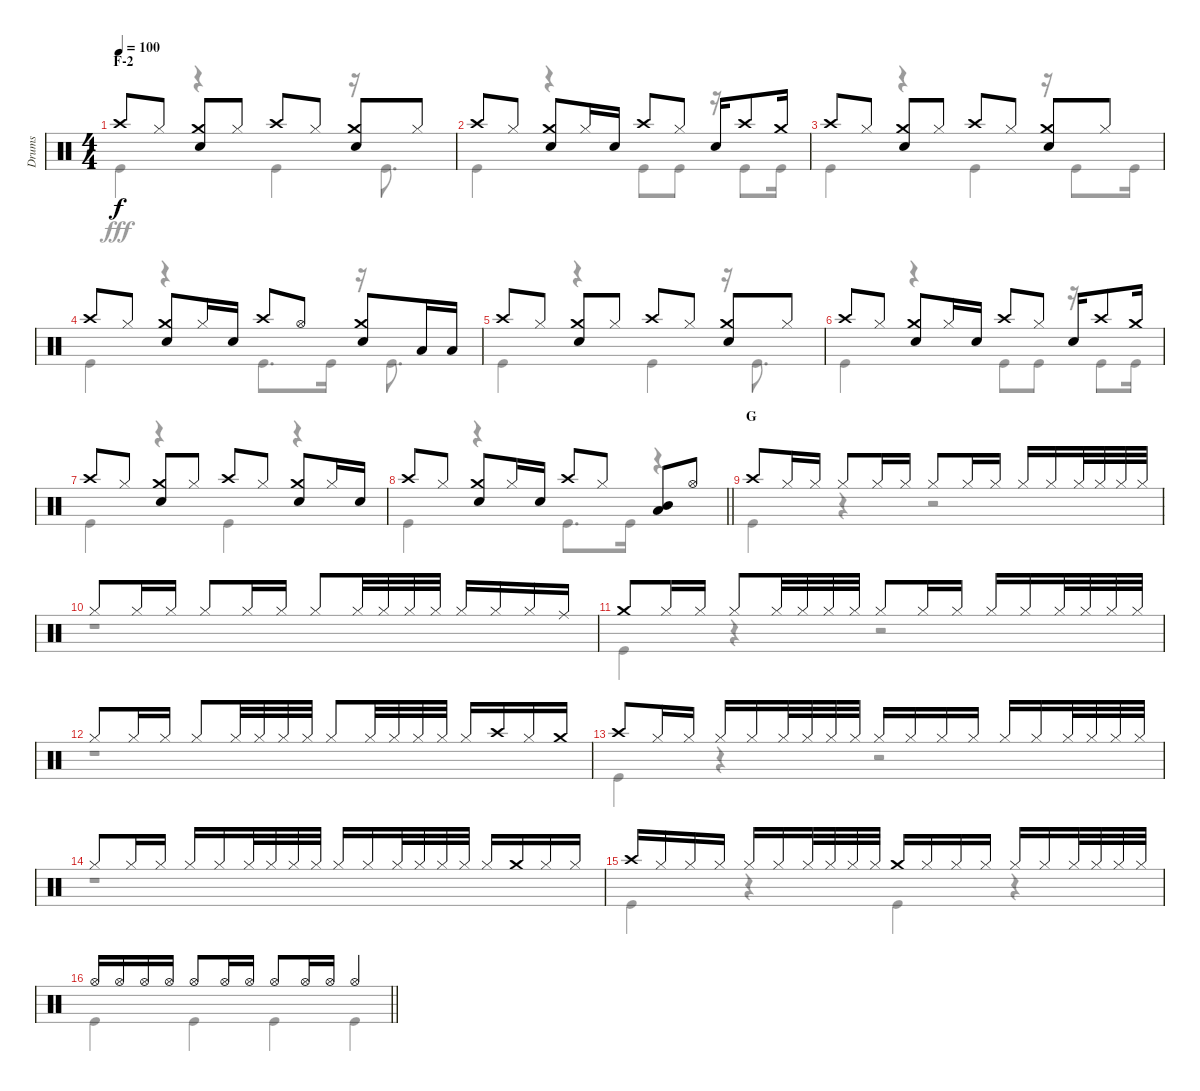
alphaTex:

\track ("Drums" "Drums") {instrument percussion}
\staff {score}
\articulation defaults
\voice
\ts (4 4)
\section ("" "F-2")
\tempo 100
\clef neutral
\ks c "Crash high (hit)".8{dy f} "Hi-Hat (closed)".8
("Crash medium (hit)" "Snare (hit) 2").8 "Hi-Hat (closed)".8 "Crash high (hit)".8 "Hi-Hat (closed)".8 ("Crash medium (hit)" "Snare (hit) 2").8 "Hi-Hat (closed)".8 |
"Crash high (hit)".8 "Hi-Hat (closed)".8 ("Crash medium (hit)" "Snare (hit) 2").8 "Hi-Hat (closed)".16 "Snare (hit) 2".16 "Crash high (hit)".8 "Hi-Hat (closed)".8 "Snare (hit) 2".16 "Crash high (hit)".8 "Crash medium (hit)".16 |
"Crash high (hit)".8 "Hi-Hat (closed)".8 ("Crash medium (hit)" "Snare (hit) 2").8 "Hi-Hat (closed)".8 "Crash high (hit)".8 "Hi-Hat (closed)".8 ("Crash medium (hit)" "Snare (hit) 2").8 "Hi-Hat (closed)".8 |
"Crash high (hit)".8 "Hi-Hat (closed)".8 ("Crash medium (hit)" "Snare (hit) 2").8 "Hi-Hat (closed)".16 "Snare (hit) 2".16 "Crash high (hit)".8 "Hi-Hat (open)".8 ("Crash medium (hit)" "Snare (hit) 2").8 "Low Tom (hit)".16 "Low Tom (hit)".16 |
"Crash high (hit)".8 "Hi-Hat (closed)".8 ("Crash medium (hit)" "Snare (hit) 2").8 "Hi-Hat (closed)".8 "Crash high (hit)".8 "Hi-Hat (closed)".8 ("Crash medium (hit)" "Snare (hit) 2").8 "Hi-Hat (closed)".8 |
"Crash high (hit)".8 "Hi-Hat (closed)".8 ("Crash medium (hit)" "Snare (hit) 2").8 "Hi-Hat (closed)".16 "Snare (hit) 2".16 "Crash high (hit)".8 "Hi-Hat (closed)".8 "Snare (hit) 2".16 "Crash high (hit)".8 "Crash medium (hit)".16 |
"Crash high (hit)".8 "Hi-Hat (closed)".8 ("Crash medium (hit)" "Snare (hit) 2").8 "Hi-Hat (closed)".8 "Crash high (hit)".8 "Hi-Hat (closed)".8 ("Crash medium (hit)" "Snare (hit) 2").8 "Hi-Hat (closed)".16 "Snare (hit) 2".16 |
\barLineRight lightlight "Crash high (hit)".8 "Hi-Hat (closed)".8
("Crash medium (hit)" "Snare (hit) 2").8 "Hi-Hat (closed)".16 "Snare (hit) 2".16 "Crash high (hit)".8 "Hi-Hat (closed)".8 ("Mid Tom (hit)" "Low Tom (hit)").8 "Hi-Hat (open)".8 |
\section ("" "G")
"Crash high (hit)".8 "Hi-Hat (closed)".16 "Hi-Hat (closed)".16 "Hi-Hat (closed)".8 "Hi-Hat (closed)".16 "Hi-Hat (closed)".16 "Hi-Hat (closed)".8 "Hi-Hat (closed)".16 "Hi-Hat (closed)".16 "Hi-Hat (closed)".16 "Hi-Hat (closed)".16 "Hi-Hat (closed)".32 "Hi-Hat (closed)".32 "Hi-Hat (closed)".32 "Hi-Hat (closed)".32 |
"Hi-Hat (closed)".8 "Hi-Hat (closed)".16 "Hi-Hat (closed)".16 "Hi-Hat (closed)".8 "Hi-Hat (closed)".16 "Hi-Hat (closed)".16 "Hi-Hat (closed)".8 "Hi-Hat (closed)".32 "Hi-Hat (closed)".32 "Hi-Hat (closed)".32 "Hi-Hat (closed)".32 "Hi-Hat (closed)".16 "Hi-Hat (closed)".16 "Hi-Hat (closed)".16 "Ride (middle)".16 |
"Crash medium (hit)".8 "Hi-Hat (closed)".16 "Hi-Hat (closed)".16 "Hi-Hat (closed)".8 "Hi-Hat (closed)".32 "Hi-Hat (closed)".32 "Hi-Hat (closed)".32 "Hi-Hat (closed)".32 "Hi-Hat (closed)".8 "Hi-Hat (closed)".16 "Hi-Hat (closed)".16 "Hi-Hat (closed)".16 "Hi-Hat (closed)".16 "Hi-Hat (closed)".32 "Hi-Hat (closed)".32 "Hi-Hat (closed)".32 "Hi-Hat (closed)".32 |
"Hi-Hat (closed)".8 "Hi-Hat (closed)".16 "Hi-Hat (closed)".16 "Hi-Hat (closed)".8 "Hi-Hat (closed)".32 "Hi-Hat (closed)".32 "Hi-Hat (closed)".32 "Hi-Hat (closed)".32 "Hi-Hat (closed)".8 "Hi-Hat (closed)".32 "Hi-Hat (closed)".32 "Hi-Hat (closed)".32 "Hi-Hat (closed)".32 "Hi-Hat (closed)".16 "Crash high (hit)".16 "Hi-Hat (closed)".16 "Crash medium (hit)".16 |
"Crash high (hit)".8 "Hi-Hat (closed)".16 "Hi-Hat (closed)".16 "Hi-Hat (closed)".16 "Hi-Hat (closed)".16 "Hi-Hat (closed)".32 "Hi-Hat (closed)".32 "Hi-Hat (closed)".32 "Hi-Hat (closed)".32 "Hi-Hat (closed)".16 "Hi-Hat (closed)".16 "Hi-Hat (closed)".16 "Hi-Hat (closed)".16 "Hi-Hat (closed)".16 "Hi-Hat (closed)".16 "Hi-Hat (closed)".32 "Hi-Hat (closed)".32 "Hi-Hat (closed)".32 "Hi-Hat (closed)".32 |
"Hi-Hat (closed)".8 "Hi-Hat (closed)".16 "Hi-Hat (closed)".16 "Hi-Hat (closed)".16 "Hi-Hat (closed)".16 "Hi-Hat (closed)".32 "Hi-Hat (closed)".32 "Hi-Hat (closed)".32 "Hi-Hat (closed)".32 "Hi-Hat (closed)".16 "Hi-Hat (closed)".16 "Hi-Hat (closed)".32 "Hi-Hat (closed)".32 "Hi-Hat (closed)".32 "Hi-Hat (closed)".32 "Hi-Hat (closed)".16 "Crash medium (hit)".16 "Hi-Hat (closed)".16 "Hi-Hat (closed)".16 |
"Crash high (hit)".16 "Hi-Hat (closed)".16 "Hi-Hat (closed)".16 "Hi-Hat (closed)".16 "Hi-Hat (closed)".16 "Hi-Hat (closed)".16 "Hi-Hat (closed)".32 "Hi-Hat (closed)".32 "Hi-Hat (closed)".32 "Hi-Hat (closed)".32 "Crash medium (hit)".16 "Hi-Hat (closed)".16 "Hi-Hat (closed)".16 "Hi-Hat (closed)".16 "Hi-Hat (closed)".16 "Hi-Hat (closed)".16 "Hi-Hat (closed)".32 "Hi-Hat (closed)".32 "Hi-Hat (closed)".32 "Hi-Hat (closed)".32 |
\barLineRight lightlight "Hi-Hat (open)".16 "Hi-Hat (open)".16 "Hi-Hat (open)".16 "Hi-Hat (open)".16 "Hi-Hat (open)".8 "Hi-Hat (open)".16 "Hi-Hat (open)".16 "Hi-Hat (open)".8 "Hi-Hat (open)".16 "Hi-Hat (open)".16 "Hi-Hat (open)".4
\voice
\clef neutral
\ottava regular
\simile none
\ks c "Kick (hit)".4{dy fff}
r.4 "Kick (hit)".4 r.16 "Kick (hit)".8{d} |
"Kick (hit)".4 r.4 "Kick (hit)".8 "Kick (hit)".8 r.16 "Kick (hit)".8 "Kick (hit)".16 |
"Kick (hit)".4 r.4 "Kick (hit)".4 r.16 "Kick (hit)".8 "Kick (hit)".16 |
"Kick (hit)".4 r.4 "Kick (hit)".8{d} "Kick (hit)".16 r.16 "Kick (hit)".8{d} |
"Kick (hit)".4 r.4 "Kick (hit)".4 r.16 "Kick (hit)".8{d} |
"Kick (hit)".4 r.4 "Kick (hit)".8 "Kick (hit)".8 r.16 "Kick (hit)".8 "Kick (hit)".16 |
"Kick (hit)".4 r.4 "Kick (hit)".4 r.4 |
\barLineRight lightlight "Kick (hit)".4
r.4 "Kick (hit)".8{d} "Kick (hit)".16 r.4 |
"Kick (hit)".4 r.4 r.2 |
r.1 |
"Kick (hit)".4 r.4 r.2 |
r.1 |
"Kick (hit)".4 r.4 r.2 |
r.1 |
"Kick (hit)".4 r.4 "Kick (hit)".4 r.4 |
\barLineRight lightlight "Kick (hit)".4 "Kick (hit)".4 "Kick (hit)".4 "Kick (hit)".4
